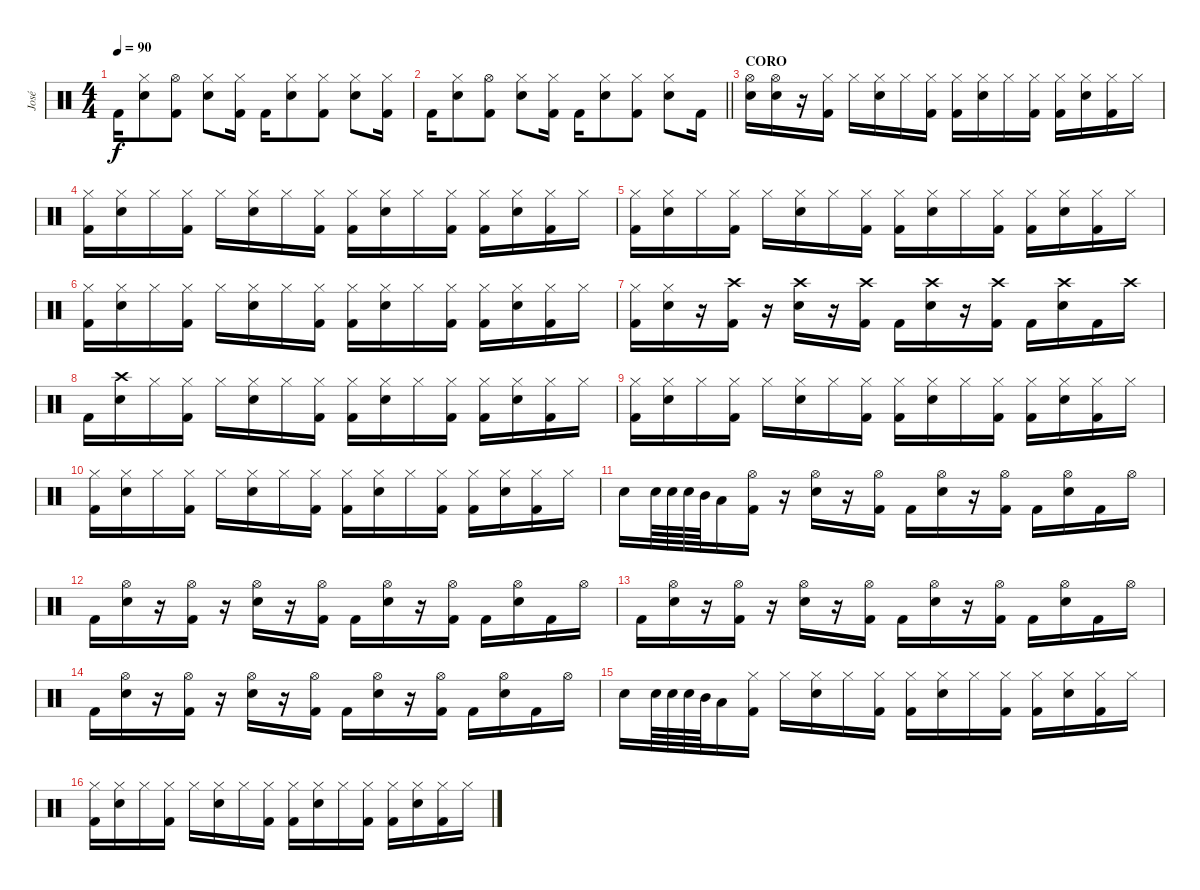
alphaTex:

\track ("José" "José") {instrument percussion}
\staff {score}
\articulation defaults
\ts (4 4)
\tempo 90
\clef neutral
\ks c "Kick (hit) 2".16{dy f}
("Hi-Hat (closed)" "Electric Snare (hit)").8 ("Hi-Hat (open)" "Kick (hit) 2").8 ("Hi-Hat (closed)" "Electric Snare (hit)").8 ("Hi-Hat (closed)" "Kick (hit) 2").16 "Kick (hit) 2".16 ("Hi-Hat (closed)" "Electric Snare (hit)").8 ("Hi-Hat (closed)" "Kick (hit) 2").8 ("Hi-Hat (closed)" "Electric Snare (hit)").8 ("Hi-Hat (closed)" "Kick (hit) 2").16 |
\barLineRight lightlight "Kick (hit) 2".16
("Hi-Hat (closed)" "Electric Snare (hit)").8 ("Hi-Hat (open)" "Kick (hit) 2").8 ("Hi-Hat (closed)" "Electric Snare (hit)").8 ("Hi-Hat (closed)" "Kick (hit) 2").16 "Kick (hit) 2".16 ("Hi-Hat (closed)" "Electric Snare (hit)").8 ("Hi-Hat (closed)" "Kick (hit) 2").8 ("Hi-Hat (closed)" "Electric Snare (hit)").8 "Kick (hit) 2".16 |
\section ("" "CORO")
("Hi-Hat (open)" "Electric Snare (hit)").16 ("Hi-Hat (open)" "Electric Snare (hit)").16 r.16 ("Hi-Hat (closed)" "Kick (hit) 2").16 "Hi-Hat (closed)".16 ("Hi-Hat (closed)" "Electric Snare (hit)").16 "Hi-Hat (closed)".16 ("Hi-Hat (closed)" "Kick (hit) 2").16 ("Hi-Hat (closed)" "Kick (hit) 2").16 ("Hi-Hat (closed)" "Electric Snare (hit)").16 "Hi-Hat (closed)".16 ("Hi-Hat (closed)" "Kick (hit) 2").16 ("Hi-Hat (closed)" "Kick (hit) 2").16 ("Hi-Hat (closed)" "Electric Snare (hit)").16 ("Hi-Hat (closed)" "Kick (hit) 2").16 "Hi-Hat (closed)".16 |
("Hi-Hat (closed)" "Kick (hit) 2").16 ("Hi-Hat (closed)" "Electric Snare (hit)").16 "Hi-Hat (closed)".16 ("Hi-Hat (closed)" "Kick (hit) 2").16 "Hi-Hat (closed)".16 ("Hi-Hat (closed)" "Electric Snare (hit)").16 "Hi-Hat (closed)".16 ("Hi-Hat (closed)" "Kick (hit) 2").16 ("Hi-Hat (closed)" "Kick (hit) 2").16 ("Hi-Hat (closed)" "Electric Snare (hit)").16 "Hi-Hat (closed)".16 ("Hi-Hat (closed)" "Kick (hit) 2").16 ("Hi-Hat (closed)" "Kick (hit) 2").16 ("Hi-Hat (closed)" "Electric Snare (hit)").16 ("Hi-Hat (closed)" "Kick (hit) 2").16 "Hi-Hat (closed)".16 |
("Hi-Hat (closed)" "Kick (hit) 2").16 ("Hi-Hat (closed)" "Electric Snare (hit)").16 "Hi-Hat (closed)".16 ("Hi-Hat (closed)" "Kick (hit) 2").16 "Hi-Hat (closed)".16 ("Hi-Hat (closed)" "Electric Snare (hit)").16 "Hi-Hat (closed)".16 ("Hi-Hat (closed)" "Kick (hit) 2").16 ("Hi-Hat (closed)" "Kick (hit) 2").16 ("Hi-Hat (closed)" "Electric Snare (hit)").16 "Hi-Hat (closed)".16 ("Hi-Hat (closed)" "Kick (hit) 2").16 ("Hi-Hat (closed)" "Kick (hit) 2").16 ("Hi-Hat (closed)" "Electric Snare (hit)").16 ("Hi-Hat (closed)" "Kick (hit) 2").16 "Hi-Hat (closed)".16 |
("Hi-Hat (closed)" "Kick (hit) 2").16 ("Hi-Hat (closed)" "Electric Snare (hit)").16 "Hi-Hat (closed)".16 ("Hi-Hat (closed)" "Kick (hit) 2").16 "Hi-Hat (closed)".16 ("Hi-Hat (closed)" "Electric Snare (hit)").16 "Hi-Hat (closed)".16 ("Hi-Hat (closed)" "Kick (hit) 2").16 ("Hi-Hat (closed)" "Kick (hit) 2").16 ("Hi-Hat (closed)" "Electric Snare (hit)").16 "Hi-Hat (closed)".16 ("Hi-Hat (closed)" "Kick (hit) 2").16 ("Hi-Hat (closed)" "Kick (hit) 2").16 ("Hi-Hat (closed)" "Electric Snare (hit)").16 ("Hi-Hat (closed)" "Kick (hit) 2").16 "Hi-Hat (closed)".16 |
("Hi-Hat (closed)" "Kick (hit) 2").16 ("Hi-Hat (closed)" "Electric Snare (hit)").16 r.16 ("Crash high (hit)" "Kick (hit) 2").16 r.16 ("Crash high (hit)" "Electric Snare (hit)").16 r.16 ("Crash high (hit)" "Kick (hit) 2").16 "Kick (hit) 2".16 ("Crash high (hit)" "Electric Snare (hit)").16 r.16 ("Crash high (hit)" "Kick (hit) 2").16 "Kick (hit) 2".16 ("Crash high (hit)" "Electric Snare (hit)").16 "Kick (hit) 2".16 "Crash high (hit)".16 |
"Kick (hit) 2".16 ("Crash high (hit)" "Electric Snare (hit)").16 "Hi-Hat (closed)".16 ("Hi-Hat (closed)" "Kick (hit) 2").16 "Hi-Hat (closed)".16 ("Hi-Hat (closed)" "Electric Snare (hit)").16 "Hi-Hat (closed)".16 ("Hi-Hat (closed)" "Kick (hit) 2").16 ("Hi-Hat (closed)" "Kick (hit) 2").16 ("Hi-Hat (closed)" "Electric Snare (hit)").16 "Hi-Hat (closed)".16 ("Hi-Hat (closed)" "Kick (hit) 2").16 ("Hi-Hat (closed)" "Kick (hit) 2").16 ("Hi-Hat (closed)" "Electric Snare (hit)").16 ("Hi-Hat (closed)" "Kick (hit) 2").16 "Hi-Hat (closed)".16 |
("Hi-Hat (closed)" "Kick (hit) 2").16 ("Hi-Hat (closed)" "Electric Snare (hit)").16 "Hi-Hat (closed)".16 ("Hi-Hat (closed)" "Kick (hit) 2").16 "Hi-Hat (closed)".16 ("Hi-Hat (closed)" "Electric Snare (hit)").16 "Hi-Hat (closed)".16 ("Hi-Hat (closed)" "Kick (hit) 2").16 ("Hi-Hat (closed)" "Kick (hit) 2").16 ("Hi-Hat (closed)" "Electric Snare (hit)").16 "Hi-Hat (closed)".16 ("Hi-Hat (closed)" "Kick (hit) 2").16 ("Hi-Hat (closed)" "Kick (hit) 2").16 ("Hi-Hat (closed)" "Electric Snare (hit)").16 ("Hi-Hat (closed)" "Kick (hit) 2").16 "Hi-Hat (closed)".16 |
("Hi-Hat (closed)" "Kick (hit) 2").16 ("Hi-Hat (closed)" "Electric Snare (hit)").16 "Hi-Hat (closed)".16 ("Hi-Hat (closed)" "Kick (hit) 2").16 "Hi-Hat (closed)".16 ("Hi-Hat (closed)" "Electric Snare (hit)").16 "Hi-Hat (closed)".16 ("Hi-Hat (closed)" "Kick (hit) 2").16 ("Hi-Hat (closed)" "Kick (hit) 2").16 ("Hi-Hat (closed)" "Electric Snare (hit)").16 "Hi-Hat (closed)".16 ("Hi-Hat (closed)" "Kick (hit) 2").16 ("Hi-Hat (closed)" "Kick (hit) 2").16 ("Hi-Hat (closed)" "Electric Snare (hit)").16 ("Hi-Hat (closed)" "Kick (hit) 2").16 "Hi-Hat (closed)".16 |
"Electric Snare (hit)".16 "Electric Snare (hit)".64 "Electric Snare (hit)".64 "Electric Snare (hit)".64 "Mid Tom (hit)".64 "Low Tom (hit)".16 ("Hi-Hat (open)" "Kick (hit) 2").16 r.16 ("Hi-Hat (open)" "Electric Snare (hit)").16 r.16 ("Hi-Hat (open)" "Kick (hit) 2").16 "Kick (hit) 2".16 ("Hi-Hat (open)" "Electric Snare (hit)").16 r.16 ("Hi-Hat (open)" "Kick (hit) 2").16 "Kick (hit) 2".16 ("Hi-Hat (open)" "Electric Snare (hit)").16 "Kick (hit) 2".16 "Hi-Hat (open)".16 |
"Kick (hit) 2".16 ("Hi-Hat (open)" "Electric Snare (hit)").16 r.16 ("Hi-Hat (open)" "Kick (hit) 2").16 r.16 ("Hi-Hat (open)" "Electric Snare (hit)").16 r.16 ("Hi-Hat (open)" "Kick (hit) 2").16 "Kick (hit) 2".16 ("Hi-Hat (open)" "Electric Snare (hit)").16 r.16 ("Hi-Hat (open)" "Kick (hit) 2").16 "Kick (hit) 2".16 ("Hi-Hat (open)" "Electric Snare (hit)").16 "Kick (hit) 2".16 "Hi-Hat (open)".16 |
"Kick (hit) 2".16 ("Hi-Hat (open)" "Electric Snare (hit)").16 r.16 ("Hi-Hat (open)" "Kick (hit) 2").16 r.16 ("Hi-Hat (open)" "Electric Snare (hit)").16 r.16 ("Hi-Hat (open)" "Kick (hit) 2").16 "Kick (hit) 2".16 ("Hi-Hat (open)" "Electric Snare (hit)").16 r.16 ("Hi-Hat (open)" "Kick (hit) 2").16 "Kick (hit) 2".16 ("Hi-Hat (open)" "Electric Snare (hit)").16 "Kick (hit) 2".16 "Hi-Hat (open)".16 |
"Kick (hit) 2".16 ("Hi-Hat (open)" "Electric Snare (hit)").16 r.16 ("Hi-Hat (open)" "Kick (hit) 2").16 r.16 ("Hi-Hat (open)" "Electric Snare (hit)").16 r.16 ("Hi-Hat (open)" "Kick (hit) 2").16 "Kick (hit) 2".16 ("Hi-Hat (open)" "Electric Snare (hit)").16 r.16 ("Hi-Hat (open)" "Kick (hit) 2").16 "Kick (hit) 2".16 ("Hi-Hat (open)" "Electric Snare (hit)").16 "Kick (hit) 2".16 "Hi-Hat (open)".16 |
"Electric Snare (hit)".16 "Electric Snare (hit)".64 "Electric Snare (hit)".64 "Electric Snare (hit)".64 "Mid Tom (hit)".64 "Low Tom (hit)".16 ("Hi-Hat (closed)" "Kick (hit) 2").16 "Hi-Hat (closed)".16 ("Hi-Hat (closed)" "Electric Snare (hit)").16 "Hi-Hat (closed)".16 ("Hi-Hat (closed)" "Kick (hit) 2").16 ("Hi-Hat (closed)" "Kick (hit) 2").16 ("Hi-Hat (closed)" "Electric Snare (hit)").16 "Hi-Hat (closed)".16 ("Hi-Hat (closed)" "Kick (hit) 2").16 ("Hi-Hat (closed)" "Kick (hit) 2").16 ("Hi-Hat (closed)" "Electric Snare (hit)").16 ("Hi-Hat (closed)" "Kick (hit) 2").16 "Hi-Hat (closed)".16 |
("Hi-Hat (closed)" "Kick (hit) 2").16 ("Hi-Hat (closed)" "Electric Snare (hit)").16 "Hi-Hat (closed)".16 ("Hi-Hat (closed)" "Kick (hit) 2").16 "Hi-Hat (closed)".16 ("Hi-Hat (closed)" "Electric Snare (hit)").16 "Hi-Hat (closed)".16 ("Hi-Hat (closed)" "Kick (hit) 2").16 ("Hi-Hat (closed)" "Kick (hit) 2").16 ("Hi-Hat (closed)" "Electric Snare (hit)").16 "Hi-Hat (closed)".16 ("Hi-Hat (closed)" "Kick (hit) 2").16 ("Hi-Hat (closed)" "Kick (hit) 2").16 ("Hi-Hat (closed)" "Electric Snare (hit)").16 ("Hi-Hat (closed)" "Kick (hit) 2").16 "Hi-Hat (closed)".16
